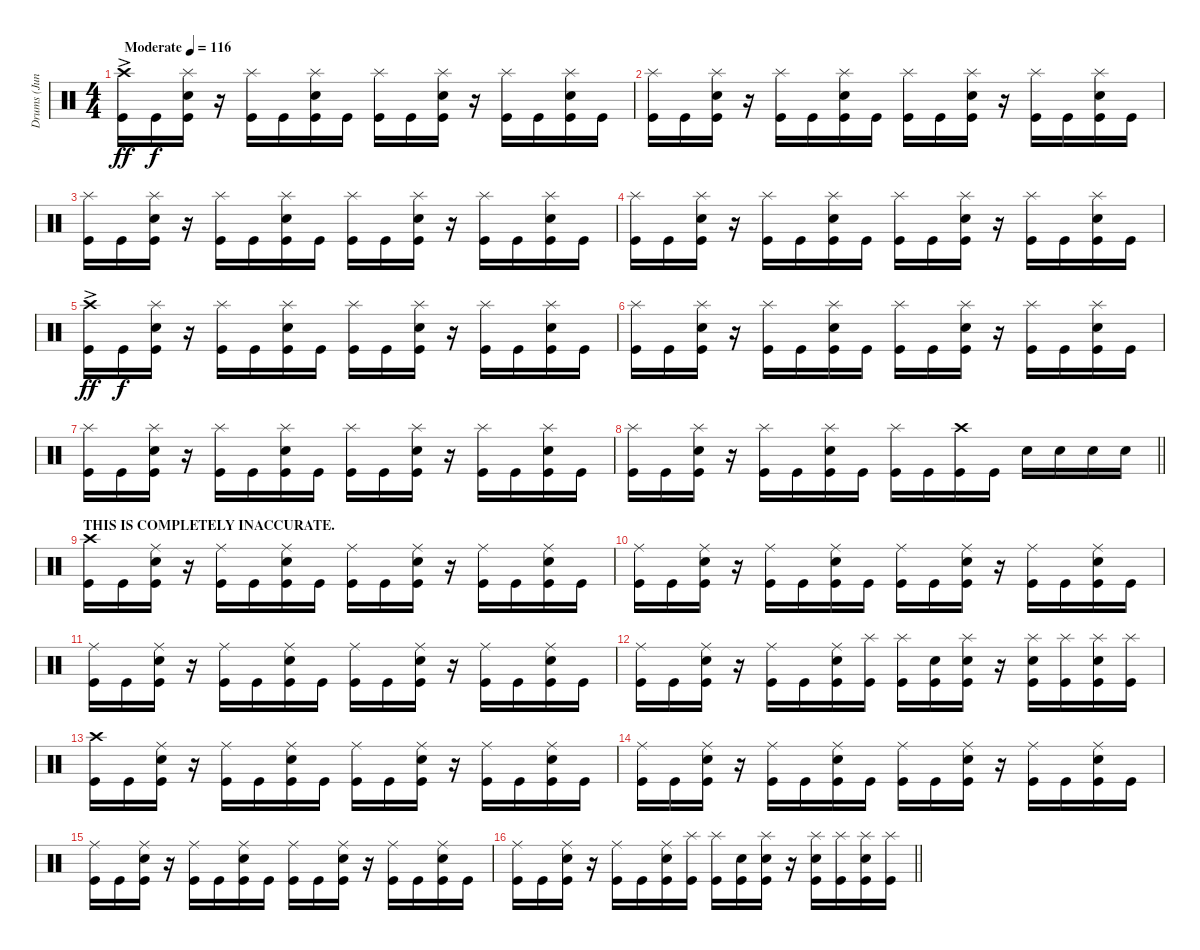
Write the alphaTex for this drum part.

\track ("Drums (Junichi Sato)" "Drums (Jun") {instrument percussion}
\staff {score}
\articulation defaults
\ts (4 4)
\tempo (116 "Moderate")
\clef neutral
\ks c
("Crash high (hit)"{ac} "Kick (hit)").16{dy ff} "Kick (hit)".16{dy f} ("Splash (hit)" "Snare (hit) 2" "Kick (hit)").16 r.16 ("Splash (hit)" "Kick (hit)").16 "Kick (hit)".16 ("Splash (hit)" "Snare (hit) 2" "Kick (hit)").16 "Kick (hit)".16 ("Splash (hit)" "Kick (hit)").16 "Kick (hit)".16 ("Splash (hit)" "Snare (hit) 2" "Kick (hit)").16 r.16 ("Splash (hit)" "Kick (hit)").16 "Kick (hit)".16 ("Splash (hit)" "Snare (hit) 2" "Kick (hit)").16 "Kick (hit)".16 |
("Splash (hit)" "Kick (hit)").16 "Kick (hit)".16 ("Splash (hit)" "Snare (hit) 2" "Kick (hit)").16 r.16 ("Splash (hit)" "Kick (hit)").16 "Kick (hit)".16 ("Splash (hit)" "Snare (hit) 2" "Kick (hit)").16 "Kick (hit)".16 ("Splash (hit)" "Kick (hit)").16 "Kick (hit)".16 ("Splash (hit)" "Snare (hit) 2" "Kick (hit)").16 r.16 ("Splash (hit)" "Kick (hit)").16 "Kick (hit)".16 ("Splash (hit)" "Snare (hit) 2" "Kick (hit)").16 "Kick (hit)".16 |
("Splash (hit)" "Kick (hit)").16 "Kick (hit)".16 ("Splash (hit)" "Snare (hit) 2" "Kick (hit)").16 r.16 ("Splash (hit)" "Kick (hit)").16 "Kick (hit)".16 ("Splash (hit)" "Snare (hit) 2" "Kick (hit)").16 "Kick (hit)".16 ("Splash (hit)" "Kick (hit)").16 "Kick (hit)".16 ("Splash (hit)" "Snare (hit) 2" "Kick (hit)").16 r.16 ("Splash (hit)" "Kick (hit)").16 "Kick (hit)".16 ("Splash (hit)" "Snare (hit) 2" "Kick (hit)").16 "Kick (hit)".16 |
("Splash (hit)" "Kick (hit)").16 "Kick (hit)".16 ("Splash (hit)" "Snare (hit) 2" "Kick (hit)").16 r.16 ("Splash (hit)" "Kick (hit)").16 "Kick (hit)".16 ("Splash (hit)" "Snare (hit) 2" "Kick (hit)").16 "Kick (hit)".16 ("Splash (hit)" "Kick (hit)").16 "Kick (hit)".16 ("Splash (hit)" "Snare (hit) 2" "Kick (hit)").16 r.16 ("Splash (hit)" "Kick (hit)").16 "Kick (hit)".16 ("Splash (hit)" "Snare (hit) 2" "Kick (hit)").16 "Kick (hit)".16 |
("Crash high (hit)"{ac} "Kick (hit)").16{dy ff} "Kick (hit)".16{dy f} ("Splash (hit)" "Snare (hit) 2" "Kick (hit)").16 r.16 ("Splash (hit)" "Kick (hit)").16 "Kick (hit)".16 ("Splash (hit)" "Snare (hit) 2" "Kick (hit)").16 "Kick (hit)".16 ("Splash (hit)" "Kick (hit)").16 "Kick (hit)".16 ("Splash (hit)" "Snare (hit) 2" "Kick (hit)").16 r.16 ("Splash (hit)" "Kick (hit)").16 "Kick (hit)".16 ("Splash (hit)" "Snare (hit) 2" "Kick (hit)").16 "Kick (hit)".16 |
("Splash (hit)" "Kick (hit)").16 "Kick (hit)".16 ("Splash (hit)" "Snare (hit) 2" "Kick (hit)").16 r.16 ("Splash (hit)" "Kick (hit)").16 "Kick (hit)".16 ("Splash (hit)" "Snare (hit) 2" "Kick (hit)").16 "Kick (hit)".16 ("Splash (hit)" "Kick (hit)").16 "Kick (hit)".16 ("Splash (hit)" "Snare (hit) 2" "Kick (hit)").16 r.16 ("Splash (hit)" "Kick (hit)").16 "Kick (hit)".16 ("Splash (hit)" "Snare (hit) 2" "Kick (hit)").16 "Kick (hit)".16 |
("Splash (hit)" "Kick (hit)").16 "Kick (hit)".16 ("Splash (hit)" "Snare (hit) 2" "Kick (hit)").16 r.16 ("Splash (hit)" "Kick (hit)").16 "Kick (hit)".16 ("Splash (hit)" "Snare (hit) 2" "Kick (hit)").16 "Kick (hit)".16 ("Splash (hit)" "Kick (hit)").16 "Kick (hit)".16 ("Splash (hit)" "Snare (hit) 2" "Kick (hit)").16 r.16 ("Splash (hit)" "Kick (hit)").16 "Kick (hit)".16 ("Splash (hit)" "Snare (hit) 2" "Kick (hit)").16 "Kick (hit)".16 |
\barLineRight lightlight
("Splash (hit)" "Kick (hit)").16 "Kick (hit)".16 ("Splash (hit)" "Snare (hit) 2" "Kick (hit)").16 r.16 ("Splash (hit)" "Kick (hit)").16 "Kick (hit)".16 ("Splash (hit)" "Snare (hit) 2" "Kick (hit)").16 "Kick (hit)".16 ("Splash (hit)" "Kick (hit)").16 "Kick (hit)".16 ("Crash high (hit)" "Kick (hit)").16 "Kick (hit)".16 "Snare (hit) 2".16 "Snare (hit) 2".16 "Snare (hit) 2".16 "Snare (hit) 2".16 |
\section ("" "THIS IS COMPLETELY INACCURATE.")
("Crash high (hit)" "Kick (hit)").16 "Kick (hit)".16 ("Ride (middle)" "Snare (hit) 2" "Kick (hit)").16 r.16 ("Ride (middle)" "Kick (hit)").16 "Kick (hit)".16 ("Ride (middle)" "Snare (hit) 2" "Kick (hit)").16 "Kick (hit)".16 ("Ride (middle)" "Kick (hit)").16 "Kick (hit)".16 ("Ride (middle)" "Snare (hit) 2" "Kick (hit)").16 r.16 ("Ride (middle)" "Kick (hit)").16 "Kick (hit)".16 ("Ride (middle)" "Snare (hit) 2" "Kick (hit)").16 "Kick (hit)".16 |
("Ride (middle)" "Kick (hit)").16 "Kick (hit)".16 ("Ride (middle)" "Snare (hit) 2" "Kick (hit)").16 r.16 ("Ride (middle)" "Kick (hit)").16 "Kick (hit)".16 ("Ride (middle)" "Snare (hit) 2" "Kick (hit)").16 "Kick (hit)".16 ("Ride (middle)" "Kick (hit)").16 "Kick (hit)".16 ("Ride (middle)" "Snare (hit) 2" "Kick (hit)").16 r.16 ("Ride (middle)" "Kick (hit)").16 "Kick (hit)".16 ("Ride (middle)" "Snare (hit) 2" "Kick (hit)").16 "Kick (hit)".16 |
("Ride (middle)" "Kick (hit)").16 "Kick (hit)".16 ("Ride (middle)" "Snare (hit) 2" "Kick (hit)").16 r.16 ("Ride (middle)" "Kick (hit)").16 "Kick (hit)".16 ("Ride (middle)" "Snare (hit) 2" "Kick (hit)").16 "Kick (hit)".16 ("Ride (middle)" "Kick (hit)").16 "Kick (hit)".16 ("Ride (middle)" "Snare (hit) 2" "Kick (hit)").16 r.16 ("Ride (middle)" "Kick (hit)").16 "Kick (hit)".16 ("Ride (middle)" "Snare (hit) 2" "Kick (hit)").16 "Kick (hit)".16 |
("Ride (middle)" "Kick (hit)").16 "Kick (hit)".16 ("Ride (middle)" "Snare (hit) 2" "Kick (hit)").16 r.16 ("Ride (middle)" "Kick (hit)").16 "Kick (hit)".16 ("Ride (middle)" "Snare (hit) 2" "Kick (hit)").16 ("Splash (hit)" "Kick (hit)").16 ("Splash (hit)" "Kick (hit)").16 ("Snare (hit) 2" "Kick (hit)").16 ("Splash (hit)" "Snare (hit) 2" "Kick (hit)").16 r.16 ("Splash (hit)" "Snare (hit) 2" "Kick (hit)").16 ("Splash (hit)" "Kick (hit)").16 ("Splash (hit)" "Snare (hit) 2" "Kick (hit)").16 ("Splash (hit)" "Kick (hit)").16 |
("Crash high (hit)" "Kick (hit)").16 "Kick (hit)".16 ("Ride (middle)" "Snare (hit) 2" "Kick (hit)").16 r.16 ("Ride (middle)" "Kick (hit)").16 "Kick (hit)".16 ("Ride (middle)" "Snare (hit) 2" "Kick (hit)").16 "Kick (hit)".16 ("Ride (middle)" "Kick (hit)").16 "Kick (hit)".16 ("Ride (middle)" "Snare (hit) 2" "Kick (hit)").16 r.16 ("Ride (middle)" "Kick (hit)").16 "Kick (hit)".16 ("Ride (middle)" "Snare (hit) 2" "Kick (hit)").16 "Kick (hit)".16 |
("Ride (middle)" "Kick (hit)").16 "Kick (hit)".16 ("Ride (middle)" "Snare (hit) 2" "Kick (hit)").16 r.16 ("Ride (middle)" "Kick (hit)").16 "Kick (hit)".16 ("Ride (middle)" "Snare (hit) 2" "Kick (hit)").16 "Kick (hit)".16 ("Ride (middle)" "Kick (hit)").16 "Kick (hit)".16 ("Ride (middle)" "Snare (hit) 2" "Kick (hit)").16 r.16 ("Ride (middle)" "Kick (hit)").16 "Kick (hit)".16 ("Ride (middle)" "Snare (hit) 2" "Kick (hit)").16 "Kick (hit)".16 |
("Ride (middle)" "Kick (hit)").16 "Kick (hit)".16 ("Ride (middle)" "Snare (hit) 2" "Kick (hit)").16 r.16 ("Ride (middle)" "Kick (hit)").16 "Kick (hit)".16 ("Ride (middle)" "Snare (hit) 2" "Kick (hit)").16 "Kick (hit)".16 ("Ride (middle)" "Kick (hit)").16 "Kick (hit)".16 ("Ride (middle)" "Snare (hit) 2" "Kick (hit)").16 r.16 ("Ride (middle)" "Kick (hit)").16 "Kick (hit)".16 ("Ride (middle)" "Snare (hit) 2" "Kick (hit)").16 "Kick (hit)".16 |
\barLineRight lightlight
("Ride (middle)" "Kick (hit)").16 "Kick (hit)".16 ("Ride (middle)" "Snare (hit) 2" "Kick (hit)").16 r.16 ("Ride (middle)" "Kick (hit)").16 "Kick (hit)".16 ("Ride (middle)" "Snare (hit) 2" "Kick (hit)").16 ("Splash (hit)" "Kick (hit)").16 ("Splash (hit)" "Kick (hit)").16 ("Snare (hit) 2" "Kick (hit)").16 ("Splash (hit)" "Snare (hit) 2" "Kick (hit)").16 r.16 ("Splash (hit)" "Snare (hit) 2" "Kick (hit)").16 ("Splash (hit)" "Kick (hit)").16 ("Splash (hit)" "Snare (hit) 2" "Kick (hit)").16 ("Splash (hit)" "Kick (hit)").16
